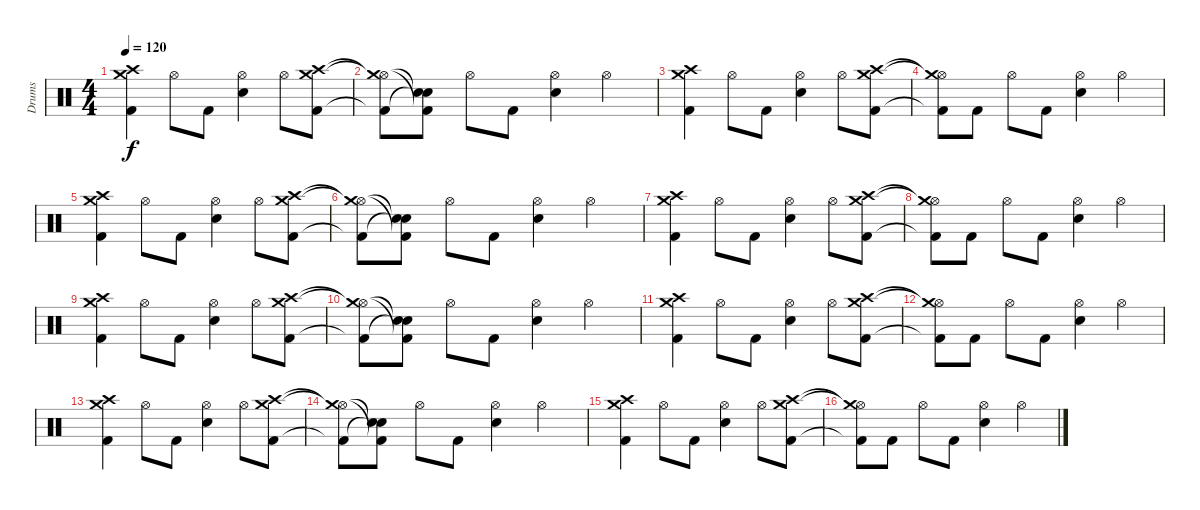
\track ("Drums" "Drums") {instrument percussion}
\staff {score}
\articulation defaults
\ts (4 4)
\tempo 120
\clef neutral
\ks c
("Crash high (hit)" "Crash medium (hit)" "Kick (hit) 2").4{dy f} "Hi-Hat (open)".8 "Kick (hit) 2".8 ("Hi-Hat (open)" "Snare (hit) 2").4 "Hi-Hat (open)".8 ("Crash high (hit)" "Crash medium (hit)" "Kick (hit) 2").8 |
("Hi-Hat (open)"{t} "Crash medium (hit)"{t} "Kick (hit) 2"{t}).8 ("Kick (hit) 2"{t} "Snare (hit)"{t} "Snare (hit)"{t}).8 "Hi-Hat (open)".8 "Kick (hit) 2".8 ("Hi-Hat (open)" "Snare (hit) 2").4 "Hi-Hat (open)".4 |
("Crash high (hit)" "Crash medium (hit)" "Kick (hit) 2").4 "Hi-Hat (open)".8 "Kick (hit) 2".8 ("Hi-Hat (open)" "Snare (hit) 2").4 "Hi-Hat (open)".8 ("Crash high (hit)" "Crash medium (hit)" "Kick (hit) 2").8 |
("Hi-Hat (open)"{t} "Crash medium (hit)"{t} "Kick (hit) 2"{t}).8 "Kick (hit) 2".8 "Hi-Hat (open)".8 "Kick (hit) 2".8 ("Hi-Hat (open)" "Snare (hit) 2").4 "Hi-Hat (open)".4 |
("Crash high (hit)" "Crash medium (hit)" "Kick (hit) 2").4 "Hi-Hat (open)".8 "Kick (hit) 2".8 ("Hi-Hat (open)" "Snare (hit) 2").4 "Hi-Hat (open)".8 ("Crash high (hit)" "Crash medium (hit)" "Kick (hit) 2").8 |
("Hi-Hat (open)"{t} "Crash medium (hit)"{t} "Kick (hit) 2"{t}).8 ("Kick (hit) 2"{t} "Snare (hit)"{t} "Snare (hit)"{t}).8 "Hi-Hat (open)".8 "Kick (hit) 2".8 ("Hi-Hat (open)" "Snare (hit) 2").4 "Hi-Hat (open)".4 |
("Crash high (hit)" "Crash medium (hit)" "Kick (hit) 2").4 "Hi-Hat (open)".8 "Kick (hit) 2".8 ("Hi-Hat (open)" "Snare (hit) 2").4 "Hi-Hat (open)".8 ("Crash high (hit)" "Crash medium (hit)" "Kick (hit) 2").8 |
("Hi-Hat (open)"{t} "Crash medium (hit)"{t} "Kick (hit) 2"{t}).8 "Kick (hit) 2".8 "Hi-Hat (open)".8 "Kick (hit) 2".8 ("Hi-Hat (open)" "Snare (hit) 2").4 "Hi-Hat (open)".4 |
("Crash high (hit)" "Crash medium (hit)" "Kick (hit) 2").4 "Hi-Hat (open)".8 "Kick (hit) 2".8 ("Hi-Hat (open)" "Snare (hit) 2").4 "Hi-Hat (open)".8 ("Crash high (hit)" "Crash medium (hit)" "Kick (hit) 2").8 |
("Hi-Hat (open)"{t} "Crash medium (hit)"{t} "Kick (hit) 2"{t}).8 ("Kick (hit) 2"{t} "Snare (hit)"{t} "Snare (hit)"{t}).8 "Hi-Hat (open)".8 "Kick (hit) 2".8 ("Hi-Hat (open)" "Snare (hit) 2").4 "Hi-Hat (open)".4 |
("Crash high (hit)" "Crash medium (hit)" "Kick (hit) 2").4 "Hi-Hat (open)".8 "Kick (hit) 2".8 ("Hi-Hat (open)" "Snare (hit) 2").4 "Hi-Hat (open)".8 ("Crash high (hit)" "Crash medium (hit)" "Kick (hit) 2").8 |
("Hi-Hat (open)"{t} "Crash medium (hit)"{t} "Kick (hit) 2"{t}).8 "Kick (hit) 2".8 "Hi-Hat (open)".8 "Kick (hit) 2".8 ("Hi-Hat (open)" "Snare (hit) 2").4 "Hi-Hat (open)".4 |
("Crash high (hit)" "Crash medium (hit)" "Kick (hit) 2").4 "Hi-Hat (open)".8 "Kick (hit) 2".8 ("Hi-Hat (open)" "Snare (hit) 2").4 "Hi-Hat (open)".8 ("Crash high (hit)" "Crash medium (hit)" "Kick (hit) 2").8 |
("Hi-Hat (open)"{t} "Crash medium (hit)"{t} "Kick (hit) 2"{t}).8 ("Kick (hit) 2"{t} "Snare (hit)"{t} "Snare (hit)"{t}).8 "Hi-Hat (open)".8 "Kick (hit) 2".8 ("Hi-Hat (open)" "Snare (hit) 2").4 "Hi-Hat (open)".4 |
("Crash high (hit)" "Crash medium (hit)" "Kick (hit) 2").4 "Hi-Hat (open)".8 "Kick (hit) 2".8 ("Hi-Hat (open)" "Snare (hit) 2").4 "Hi-Hat (open)".8 ("Crash high (hit)" "Crash medium (hit)" "Kick (hit) 2").8 |
("Hi-Hat (open)"{t} "Crash medium (hit)"{t} "Kick (hit) 2"{t}).8 "Kick (hit) 2".8 "Hi-Hat (open)".8 "Kick (hit) 2".8 ("Hi-Hat (open)" "Snare (hit) 2").4 "Hi-Hat (open)".4
